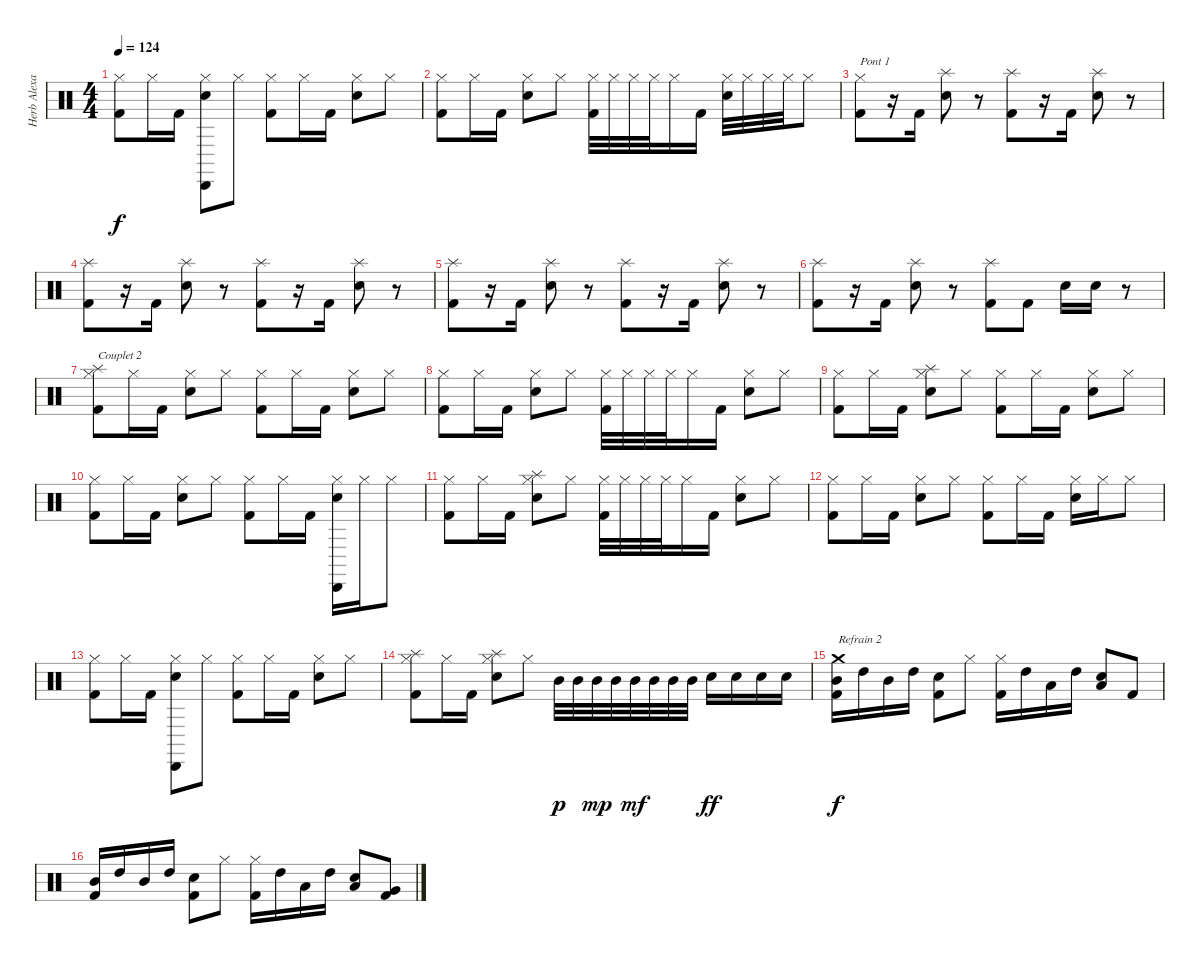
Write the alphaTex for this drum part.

\track ("Herb Alexander" "Herb Alexa") {instrument percussion}
\staff {score}
\articulation defaults
\ts (4 4)
\tempo 124
\clef neutral
\ks c
("Hi-Hat (closed)" "Kick (hit) 2").8{dy f} "Hi-Hat (closed)".16 "Kick (hit) 2".16 ("Cabasa (hit)" "Electric Snare (hit)" "Hi-Hat (closed)").8 "Hi-Hat (closed)".8 ("Hi-Hat (closed)" "Kick (hit) 2").8 "Hi-Hat (closed)".16 "Kick (hit) 2".16 ("Electric Snare (hit)" "Hi-Hat (closed)").8 "Hi-Hat (closed)".8 |
("Hi-Hat (closed)" "Kick (hit) 2").8 "Hi-Hat (closed)".16 "Kick (hit) 2".16 ("Electric Snare (hit)" "Hi-Hat (closed)").8 "Hi-Hat (closed)".8 ("Hi-Hat (closed)" "Kick (hit) 2").32 "Hi-Hat (closed)".32 "Hi-Hat (closed)".32 "Hi-Hat (closed)".32 "Hi-Hat (closed)".16 "Kick (hit) 2".16 ("Electric Snare (hit)" "Hi-Hat (closed)").32 "Hi-Hat (closed)".32 "Hi-Hat (closed)".32 "Hi-Hat (closed)".32 "Hi-Hat (closed)".8 |
("Hi-Hat (closed)" "Kick (hit) 2").8{txt "Pont 1"} r.16 "Kick (hit) 2".16 ("Splash (hit)" "Electric Snare (hit)").8 r.8 ("Splash (hit)" "Kick (hit) 2").8 r.16 "Kick (hit) 2".16 ("Splash (hit)" "Electric Snare (hit)").8 r.8 |
("Splash (hit)" "Kick (hit) 2").8 r.16 "Kick (hit) 2".16 ("Splash (hit)" "Electric Snare (hit)").8 r.8 ("Splash (hit)" "Kick (hit) 2").8 r.16 "Kick (hit) 2".16 ("Splash (hit)" "Electric Snare (hit)").8 r.8 |
("Splash (hit)" "Kick (hit) 2").8 r.16 "Kick (hit) 2".16 ("Splash (hit)" "Electric Snare (hit)").8 r.8 ("Splash (hit)" "Kick (hit) 2").8 r.16 "Kick (hit) 2".16 ("Splash (hit)" "Electric Snare (hit)").8 r.8 |
("Splash (hit)" "Kick (hit) 2").8 r.16 "Kick (hit) 2".16 ("Splash (hit)" "Electric Snare (hit)").8 r.8 ("Splash (hit)" "Kick (hit) 2").8 "Kick (hit) 2".8 "Electric Snare (hit)".16 "Electric Snare (hit)".16 r.8 |
("Splash (hit)" "Hi-Hat (closed)" "Kick (hit) 2").8{txt "Couplet 2"} "Hi-Hat (closed)".16 "Kick (hit) 2".16 ("Electric Snare (hit)" "Hi-Hat (closed)").8 "Hi-Hat (closed)".8 ("Hi-Hat (closed)" "Kick (hit) 2").8 "Hi-Hat (closed)".16 "Kick (hit) 2".16 ("Electric Snare (hit)" "Hi-Hat (closed)").8 "Hi-Hat (closed)".8 |
("Hi-Hat (closed)" "Kick (hit) 2").8 "Hi-Hat (closed)".16 "Kick (hit) 2".16 ("Electric Snare (hit)" "Hi-Hat (closed)").8 "Hi-Hat (closed)".8 ("Hi-Hat (closed)" "Kick (hit) 2").32 "Hi-Hat (closed)".32 "Hi-Hat (closed)".32 "Hi-Hat (closed)".32 "Hi-Hat (closed)".16 "Kick (hit) 2".16 ("Electric Snare (hit)" "Hi-Hat (closed)").8 "Hi-Hat (closed)".8 |
("Hi-Hat (closed)" "Kick (hit) 2").8 "Hi-Hat (closed)".16 "Kick (hit) 2".16 ("Splash (hit)" "Electric Snare (hit)" "Hi-Hat (closed)").8 "Hi-Hat (closed)".8 ("Hi-Hat (closed)" "Kick (hit) 2").8 "Hi-Hat (closed)".16 "Kick (hit) 2".16 ("Electric Snare (hit)" "Hi-Hat (closed)").8 "Hi-Hat (closed)".8 |
("Hi-Hat (closed)" "Kick (hit) 2").8 "Hi-Hat (closed)".16 "Kick (hit) 2".16 ("Electric Snare (hit)" "Hi-Hat (closed)").8 "Hi-Hat (closed)".8 ("Hi-Hat (closed)" "Kick (hit) 2").8 "Hi-Hat (closed)".16 "Kick (hit) 2".16 ("Cabasa (hit)" "Electric Snare (hit)" "Hi-Hat (closed)").16 "Hi-Hat (closed)".16 "Hi-Hat (closed)".8 |
("Hi-Hat (closed)" "Kick (hit) 2").8 "Hi-Hat (closed)".16 "Kick (hit) 2".16 ("Splash (hit)" "Electric Snare (hit)" "Hi-Hat (closed)").8 "Hi-Hat (closed)".8 ("Hi-Hat (closed)" "Kick (hit) 2").32 "Hi-Hat (closed)".32 "Hi-Hat (closed)".32 "Hi-Hat (closed)".32 "Hi-Hat (closed)".16 "Kick (hit) 2".16 ("Electric Snare (hit)" "Hi-Hat (closed)").8 "Hi-Hat (closed)".8 |
("Hi-Hat (closed)" "Kick (hit) 2").8 "Hi-Hat (closed)".16 "Kick (hit) 2".16 ("Electric Snare (hit)" "Hi-Hat (closed)").8 "Hi-Hat (closed)".8 ("Hi-Hat (closed)" "Kick (hit) 2").8 "Hi-Hat (closed)".16 "Kick (hit) 2".16 ("Electric Snare (hit)" "Hi-Hat (closed)").16 "Hi-Hat (closed)".16 "Hi-Hat (closed)".8 |
("Hi-Hat (closed)" "Kick (hit) 2").8 "Hi-Hat (closed)".16 "Kick (hit) 2".16 ("Cabasa (hit)" "Electric Snare (hit)" "Hi-Hat (closed)").8 "Hi-Hat (closed)".8 ("Hi-Hat (closed)" "Kick (hit) 2").8 "Hi-Hat (closed)".16 "Kick (hit) 2".16 ("Electric Snare (hit)" "Hi-Hat (closed)").8 "Hi-Hat (closed)".8 |
("Splash (hit)" "Hi-Hat (closed)" "Kick (hit) 2").8 "Hi-Hat (closed)".16 "Kick (hit) 2".16 ("Splash (hit)" "Electric Snare (hit)" "Hi-Hat (closed)").8 "Hi-Hat (closed)".8 "Mid Tom (hit)".32{dy p} "Mid Tom (hit)".32 "Mid Tom (hit)".32{dy mp} "Mid Tom (hit)".32 "Mid Tom (hit)".32{dy mf} "Mid Tom (hit)".32 "Mid Tom (hit)".32 "Mid Tom (hit)".32 "Electric Snare (hit)".16{dy ff} "Electric Snare (hit)".16 "Electric Snare (hit)".16 "Electric Snare (hit)".16 |
("Crash medium (hit)" "Mid Tom (hit)" "Kick (hit) 2").16{txt "Refrain 2" dy f} "High Tom (hit)".16 "Mid Tom (hit)".16 "High Tom (hit)".16 ("Electric Snare (hit)" "Kick (hit) 2").8 "Hi-Hat (closed)".8 ("Hi-Hat (closed)" "Kick (hit) 2").16 "High Tom (hit)".16 "Low Tom (hit)".16 "High Tom (hit)".16 ("Low Tom (hit)" "Electric Snare (hit)").8 "Kick (hit) 2".8 |
("Mid Tom (hit)" "Kick (hit) 2").16 "High Tom (hit)".16 "Mid Tom (hit)".16 "High Tom (hit)".16 ("Electric Snare (hit)" "Kick (hit) 2").8 "Hi-Hat (closed)".8 ("Hi-Hat (closed)" "Kick (hit) 2").16 "High Tom (hit)".16 "Low Tom (hit)".16 "High Tom (hit)".16 ("Low Tom (hit)" "Electric Snare (hit)").8 ("Very Low Tom (hit)" "Kick (hit) 2").8
